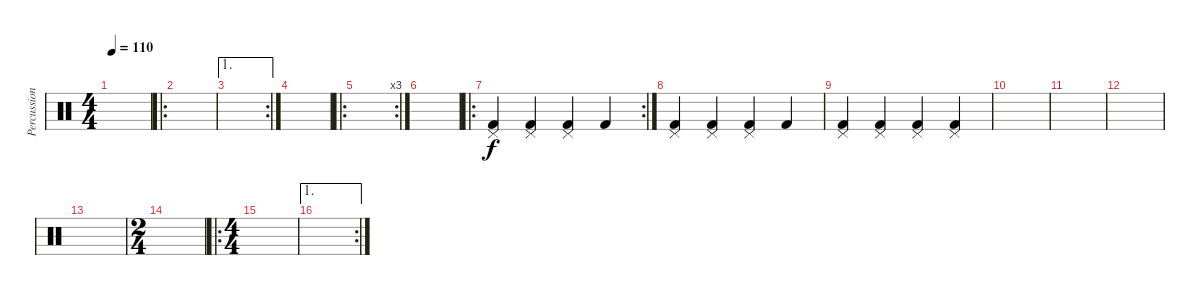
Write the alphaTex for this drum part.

\track ("Percussion" "Percussion") {instrument percussion}
\staff {score}
\articulation defaults
\ts (4 4)
\tempo 110
\clef neutral
\ks c
|
\ro
|
\ae 1
\rc 2
|
|
\ro
\rc 3
|
|
\ro
\rc 2
("Pedal Hi-Hat (hit)" "Kick (hit) 2").4 ("Pedal Hi-Hat (hit)" "Kick (hit) 2").4 ("Pedal Hi-Hat (hit)" "Kick (hit) 2").4 "Kick (hit) 2".4 |
("Pedal Hi-Hat (hit)" "Kick (hit) 2").4 ("Pedal Hi-Hat (hit)" "Kick (hit) 2").4 ("Pedal Hi-Hat (hit)" "Kick (hit) 2").4 "Kick (hit) 2".4 |
("Pedal Hi-Hat (hit)" "Kick (hit) 2").4 ("Pedal Hi-Hat (hit)" "Kick (hit) 2").4 ("Pedal Hi-Hat (hit)" "Kick (hit) 2").4 ("Pedal Hi-Hat (hit)" "Kick (hit) 2").4 |
|
|
|
|
\ts (2 4)
|
\ro
\ts (4 4)
|
\ae 1
\rc 2
